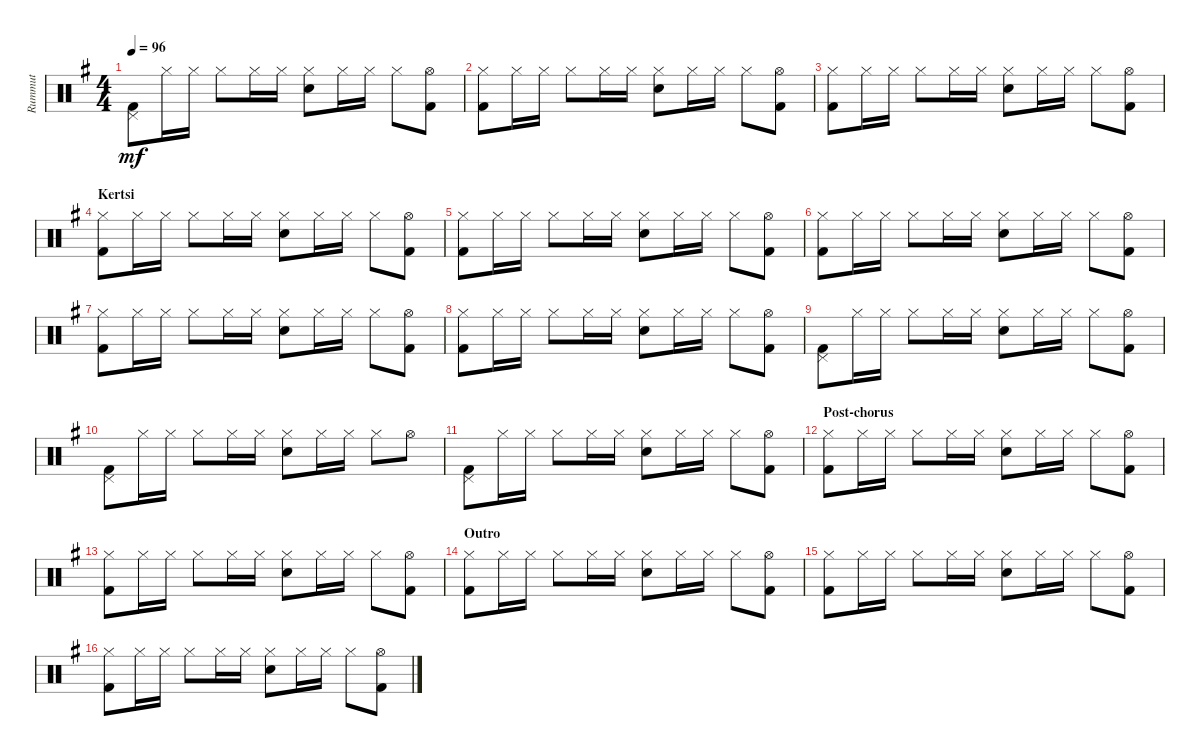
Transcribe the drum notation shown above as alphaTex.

\track ("Rummut" "Rummut") {instrument percussion}
\staff {score}
\articulation defaults
\ts (4 4)
\tempo 96
\clef neutral
\ks g
("Kick (hit) 2" "Pedal Hi-Hat (hit)").8{dy mf} "Hi-Hat (closed)".16 "Hi-Hat (closed)".16 "Hi-Hat (closed)".8 "Hi-Hat (closed)".16 "Hi-Hat (closed)".16 ("Hi-Hat (closed)" "Snare (hit) 2").8 "Hi-Hat (closed)".16 "Hi-Hat (closed)".16 "Hi-Hat (closed)".8 ("Kick (hit) 2" "Hi-Hat (open)").8 |
("Kick (hit) 2" "Hi-Hat (closed)").8 "Hi-Hat (closed)".16 "Hi-Hat (closed)".16 "Hi-Hat (closed)".8 "Hi-Hat (closed)".16 "Hi-Hat (closed)".16 ("Hi-Hat (closed)" "Snare (hit) 2").8 "Hi-Hat (closed)".16 "Hi-Hat (closed)".16 "Hi-Hat (closed)".8 ("Kick (hit) 2" "Hi-Hat (open)").8 |
("Kick (hit) 2" "Hi-Hat (closed)").8 "Hi-Hat (closed)".16 "Hi-Hat (closed)".16 "Hi-Hat (closed)".8 "Hi-Hat (closed)".16 "Hi-Hat (closed)".16 ("Hi-Hat (closed)" "Snare (hit) 2").8 "Hi-Hat (closed)".16 "Hi-Hat (closed)".16 "Hi-Hat (closed)".8 ("Kick (hit) 2" "Hi-Hat (open)").8 |
\section ("" "Kertsi")
("Kick (hit) 2" "Hi-Hat (closed)").8 "Hi-Hat (closed)".16 "Hi-Hat (closed)".16 "Hi-Hat (closed)".8 "Hi-Hat (closed)".16 "Hi-Hat (closed)".16 ("Hi-Hat (closed)" "Snare (hit) 2").8 "Hi-Hat (closed)".16 "Hi-Hat (closed)".16 "Hi-Hat (closed)".8 ("Kick (hit) 2" "Hi-Hat (open)").8 |
("Kick (hit) 2" "Hi-Hat (closed)").8 "Hi-Hat (closed)".16 "Hi-Hat (closed)".16 "Hi-Hat (closed)".8 "Hi-Hat (closed)".16 "Hi-Hat (closed)".16 ("Hi-Hat (closed)" "Snare (hit) 2").8 "Hi-Hat (closed)".16 "Hi-Hat (closed)".16 "Hi-Hat (closed)".8 ("Kick (hit) 2" "Hi-Hat (open)").8 |
("Kick (hit) 2" "Hi-Hat (closed)").8 "Hi-Hat (closed)".16 "Hi-Hat (closed)".16 "Hi-Hat (closed)".8 "Hi-Hat (closed)".16 "Hi-Hat (closed)".16 ("Hi-Hat (closed)" "Snare (hit) 2").8 "Hi-Hat (closed)".16 "Hi-Hat (closed)".16 "Hi-Hat (closed)".8 ("Kick (hit) 2" "Hi-Hat (open)").8 |
("Kick (hit) 2" "Hi-Hat (closed)").8 "Hi-Hat (closed)".16 "Hi-Hat (closed)".16 "Hi-Hat (closed)".8 "Hi-Hat (closed)".16 "Hi-Hat (closed)".16 ("Hi-Hat (closed)" "Snare (hit) 2").8 "Hi-Hat (closed)".16 "Hi-Hat (closed)".16 "Hi-Hat (closed)".8 ("Kick (hit) 2" "Hi-Hat (open)").8 |
("Kick (hit) 2" "Hi-Hat (closed)").8 "Hi-Hat (closed)".16 "Hi-Hat (closed)".16 "Hi-Hat (closed)".8 "Hi-Hat (closed)".16 "Hi-Hat (closed)".16 ("Hi-Hat (closed)" "Snare (hit) 2").8 "Hi-Hat (closed)".16 "Hi-Hat (closed)".16 "Hi-Hat (closed)".8 ("Kick (hit) 2" "Hi-Hat (open)").8 |
("Kick (hit) 2" "Pedal Hi-Hat (hit)").8 "Hi-Hat (closed)".16 "Hi-Hat (closed)".16 "Hi-Hat (closed)".8 "Hi-Hat (closed)".16 "Hi-Hat (closed)".16 ("Hi-Hat (closed)" "Snare (hit) 2").8 "Hi-Hat (closed)".16 "Hi-Hat (closed)".16 "Hi-Hat (closed)".8 ("Kick (hit) 2" "Hi-Hat (open)").8 |
("Kick (hit) 2" "Pedal Hi-Hat (hit)").8 "Hi-Hat (closed)".16 "Hi-Hat (closed)".16 "Hi-Hat (closed)".8 "Hi-Hat (closed)".16 "Hi-Hat (closed)".16 ("Hi-Hat (closed)" "Snare (hit) 2").8 "Hi-Hat (closed)".16 "Hi-Hat (closed)".16 "Hi-Hat (closed)".8 "Hi-Hat (open)".8 |
("Kick (hit) 2" "Pedal Hi-Hat (hit)").8 "Hi-Hat (closed)".16 "Hi-Hat (closed)".16 "Hi-Hat (closed)".8 "Hi-Hat (closed)".16 "Hi-Hat (closed)".16 ("Hi-Hat (closed)" "Snare (hit) 2").8 "Hi-Hat (closed)".16 "Hi-Hat (closed)".16 "Hi-Hat (closed)".8 ("Kick (hit) 2" "Hi-Hat (open)").8 |
\section ("" "Post-chorus")
("Kick (hit) 2" "Hi-Hat (closed)").8 "Hi-Hat (closed)".16 "Hi-Hat (closed)".16 "Hi-Hat (closed)".8 "Hi-Hat (closed)".16 "Hi-Hat (closed)".16 ("Hi-Hat (closed)" "Snare (hit) 2").8 "Hi-Hat (closed)".16 "Hi-Hat (closed)".16 "Hi-Hat (closed)".8 ("Kick (hit) 2" "Hi-Hat (open)").8 |
("Kick (hit) 2" "Hi-Hat (closed)").8 "Hi-Hat (closed)".16 "Hi-Hat (closed)".16 "Hi-Hat (closed)".8 "Hi-Hat (closed)".16 "Hi-Hat (closed)".16 ("Hi-Hat (closed)" "Snare (hit) 2").8 "Hi-Hat (closed)".16 "Hi-Hat (closed)".16 "Hi-Hat (closed)".8 ("Kick (hit) 2" "Hi-Hat (open)").8 |
\section ("" "Outro")
("Kick (hit) 2" "Hi-Hat (closed)").8 "Hi-Hat (closed)".16 "Hi-Hat (closed)".16 "Hi-Hat (closed)".8 "Hi-Hat (closed)".16 "Hi-Hat (closed)".16 ("Hi-Hat (closed)" "Snare (hit) 2").8 "Hi-Hat (closed)".16 "Hi-Hat (closed)".16 "Hi-Hat (closed)".8 ("Kick (hit) 2" "Hi-Hat (open)").8 |
("Kick (hit) 2" "Hi-Hat (closed)").8 "Hi-Hat (closed)".16 "Hi-Hat (closed)".16 "Hi-Hat (closed)".8 "Hi-Hat (closed)".16 "Hi-Hat (closed)".16 ("Hi-Hat (closed)" "Snare (hit) 2").8 "Hi-Hat (closed)".16 "Hi-Hat (closed)".16 "Hi-Hat (closed)".8 ("Kick (hit) 2" "Hi-Hat (open)").8 |
("Kick (hit) 2" "Hi-Hat (closed)").8 "Hi-Hat (closed)".16 "Hi-Hat (closed)".16 "Hi-Hat (closed)".8 "Hi-Hat (closed)".16 "Hi-Hat (closed)".16 ("Hi-Hat (closed)" "Snare (hit) 2").8 "Hi-Hat (closed)".16 "Hi-Hat (closed)".16 "Hi-Hat (closed)".8 ("Kick (hit) 2" "Hi-Hat (open)").8
